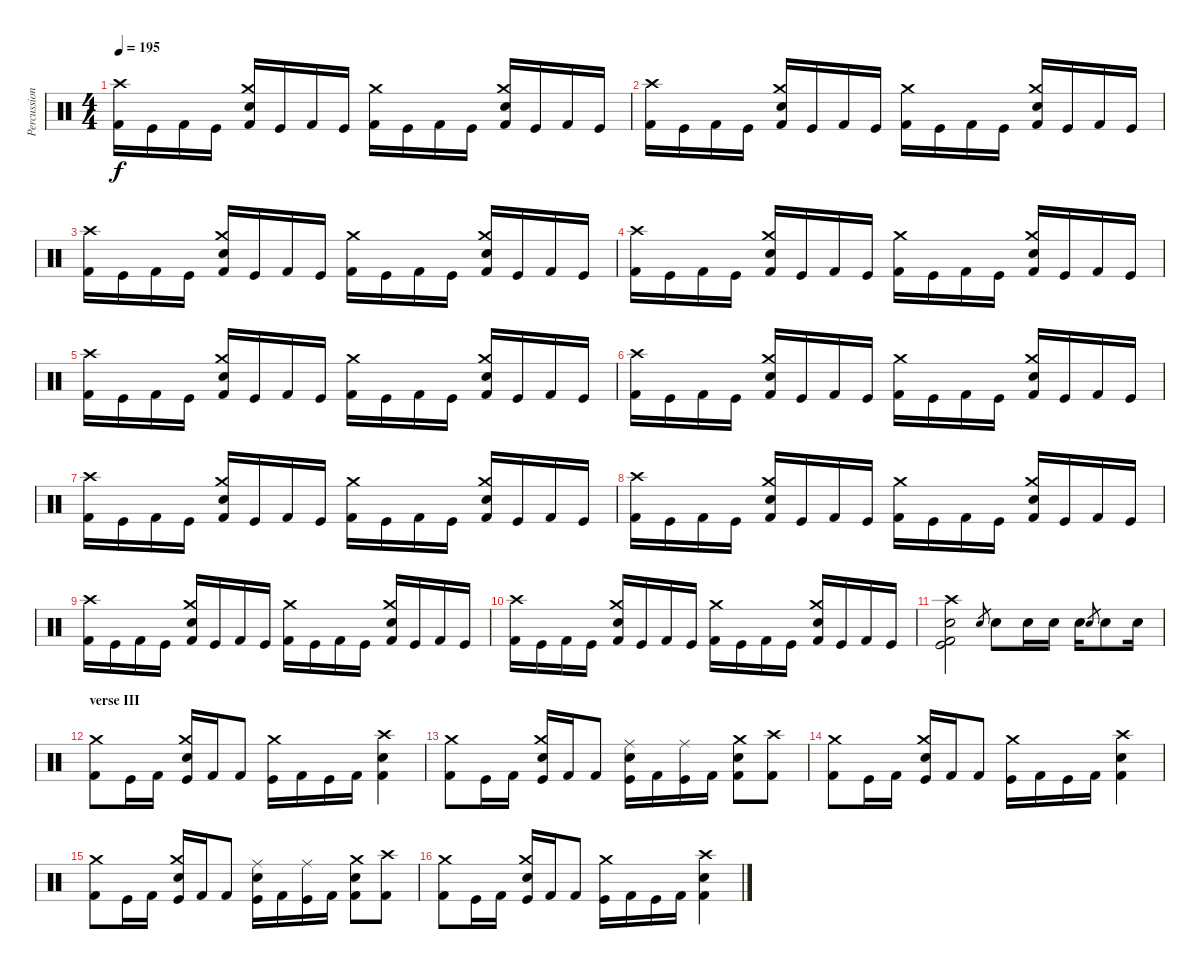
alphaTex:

\track ("Percussion" "Percussion") {instrument percussion}
\staff {score}
\articulation defaults
\ts (4 4)
\tempo 195
\clef neutral
\ks c
("Crash high (hit)" "Kick (hit) 2").16{dy f} "Kick (hit)".16 "Kick (hit) 2".16 "Kick (hit)".16 ("Crash medium (hit)" "Electric Snare (hit)" "Kick (hit) 2").16 "Kick (hit)".16 "Kick (hit) 2".16 "Kick (hit)".16 ("Crash medium (hit)" "Kick (hit) 2").16 "Kick (hit)".16 "Kick (hit) 2".16 "Kick (hit)".16 ("Crash medium (hit)" "Electric Snare (hit)" "Kick (hit) 2").16 "Kick (hit)".16 "Kick (hit) 2".16 "Kick (hit)".16 |
("Crash high (hit)" "Kick (hit) 2").16 "Kick (hit)".16 "Kick (hit) 2".16 "Kick (hit)".16 ("Crash medium (hit)" "Electric Snare (hit)" "Kick (hit) 2").16 "Kick (hit)".16 "Kick (hit) 2".16 "Kick (hit)".16 ("Crash medium (hit)" "Kick (hit) 2").16 "Kick (hit)".16 "Kick (hit) 2".16 "Kick (hit)".16 ("Crash medium (hit)" "Electric Snare (hit)" "Kick (hit) 2").16 "Kick (hit)".16 "Kick (hit) 2".16 "Kick (hit)".16 |
("Crash high (hit)" "Kick (hit) 2").16 "Kick (hit)".16 "Kick (hit) 2".16 "Kick (hit)".16 ("Crash medium (hit)" "Electric Snare (hit)" "Kick (hit) 2").16 "Kick (hit)".16 "Kick (hit) 2".16 "Kick (hit)".16 ("Crash medium (hit)" "Kick (hit) 2").16 "Kick (hit)".16 "Kick (hit) 2".16 "Kick (hit)".16 ("Crash medium (hit)" "Electric Snare (hit)" "Kick (hit) 2").16 "Kick (hit)".16 "Kick (hit) 2".16 "Kick (hit)".16 |
("Crash high (hit)" "Kick (hit) 2").16 "Kick (hit)".16 "Kick (hit) 2".16 "Kick (hit)".16 ("Crash medium (hit)" "Electric Snare (hit)" "Kick (hit) 2").16 "Kick (hit)".16 "Kick (hit) 2".16 "Kick (hit)".16 ("Crash medium (hit)" "Kick (hit) 2").16 "Kick (hit)".16 "Kick (hit) 2".16 "Kick (hit)".16 ("Crash medium (hit)" "Electric Snare (hit)" "Kick (hit) 2").16 "Kick (hit)".16 "Kick (hit) 2".16 "Kick (hit)".16 |
("Crash high (hit)" "Kick (hit) 2").16 "Kick (hit)".16 "Kick (hit) 2".16 "Kick (hit)".16 ("Crash medium (hit)" "Electric Snare (hit)" "Kick (hit) 2").16 "Kick (hit)".16 "Kick (hit) 2".16 "Kick (hit)".16 ("Crash medium (hit)" "Kick (hit) 2").16 "Kick (hit)".16 "Kick (hit) 2".16 "Kick (hit)".16 ("Crash medium (hit)" "Electric Snare (hit)" "Kick (hit) 2").16 "Kick (hit)".16 "Kick (hit) 2".16 "Kick (hit)".16 |
("Crash high (hit)" "Kick (hit) 2").16 "Kick (hit)".16 "Kick (hit) 2".16 "Kick (hit)".16 ("Crash medium (hit)" "Electric Snare (hit)" "Kick (hit) 2").16 "Kick (hit)".16 "Kick (hit) 2".16 "Kick (hit)".16 ("Crash medium (hit)" "Kick (hit) 2").16 "Kick (hit)".16 "Kick (hit) 2".16 "Kick (hit)".16 ("Crash medium (hit)" "Electric Snare (hit)" "Kick (hit) 2").16 "Kick (hit)".16 "Kick (hit) 2".16 "Kick (hit)".16 |
("Crash high (hit)" "Kick (hit) 2").16 "Kick (hit)".16 "Kick (hit) 2".16 "Kick (hit)".16 ("Crash medium (hit)" "Electric Snare (hit)" "Kick (hit) 2").16 "Kick (hit)".16 "Kick (hit) 2".16 "Kick (hit)".16 ("Crash medium (hit)" "Kick (hit) 2").16 "Kick (hit)".16 "Kick (hit) 2".16 "Kick (hit)".16 ("Crash medium (hit)" "Electric Snare (hit)" "Kick (hit) 2").16 "Kick (hit)".16 "Kick (hit) 2".16 "Kick (hit)".16 |
("Crash high (hit)" "Kick (hit) 2").16 "Kick (hit)".16 "Kick (hit) 2".16 "Kick (hit)".16 ("Crash medium (hit)" "Electric Snare (hit)" "Kick (hit) 2").16 "Kick (hit)".16 "Kick (hit) 2".16 "Kick (hit)".16 ("Crash medium (hit)" "Kick (hit) 2").16 "Kick (hit)".16 "Kick (hit) 2".16 "Kick (hit)".16 ("Crash medium (hit)" "Electric Snare (hit)" "Kick (hit) 2").16 "Kick (hit)".16 "Kick (hit) 2".16 "Kick (hit)".16 |
("Crash high (hit)" "Kick (hit) 2").16 "Kick (hit)".16 "Kick (hit) 2".16 "Kick (hit)".16 ("Crash medium (hit)" "Electric Snare (hit)" "Kick (hit) 2").16 "Kick (hit)".16 "Kick (hit) 2".16 "Kick (hit)".16 ("Crash medium (hit)" "Kick (hit) 2").16 "Kick (hit)".16 "Kick (hit) 2".16 "Kick (hit)".16 ("Crash medium (hit)" "Electric Snare (hit)" "Kick (hit) 2").16 "Kick (hit)".16 "Kick (hit) 2".16 "Kick (hit)".16 |
("Crash high (hit)" "Kick (hit) 2").16 "Kick (hit)".16 "Kick (hit) 2".16 "Kick (hit)".16 ("Crash medium (hit)" "Electric Snare (hit)" "Kick (hit) 2").16 "Kick (hit)".16 "Kick (hit) 2".16 "Kick (hit)".16 ("Crash medium (hit)" "Kick (hit) 2").16 "Kick (hit)".16 "Kick (hit) 2".16 "Kick (hit)".16 ("Crash medium (hit)" "Electric Snare (hit)" "Kick (hit) 2").16 "Kick (hit)".16 "Kick (hit) 2".16 "Kick (hit)".16 |
("Crash high (hit)" "Electric Snare (hit)" "Kick (hit)" "Kick (hit) 2").2 "Electric Snare (hit)".8{gr} "Electric Snare (hit)".8 "Electric Snare (hit)".16 "Electric Snare (hit)".16 "Electric Snare (hit)".16 "Snare (hit) 2".8{gr} "Electric Snare (hit)".8 "Electric Snare (hit)".16 |
\section ("" "verse III")
("Crash medium (hit)" "Kick (hit) 2").8 "Kick (hit)".16 "Kick (hit) 2".16 ("Crash medium (hit)" "Electric Snare (hit)" "Kick (hit)").16 "Kick (hit) 2".16 "Kick (hit) 2".8 ("Crash medium (hit)" "Kick (hit)").16 "Kick (hit) 2".16 "Kick (hit)".16 "Kick (hit) 2".16 ("Crash high (hit)" "Electric Snare (hit)" "Kick (hit) 2").4 |
("Crash medium (hit)" "Kick (hit) 2").8 "Kick (hit)".16 "Kick (hit) 2".16 ("Crash medium (hit)" "Electric Snare (hit)" "Kick (hit)").16 "Kick (hit) 2".16 "Kick (hit) 2".8 ("Ride (middle)" "Electric Snare (hit)" "Kick (hit)").16 "Kick (hit) 2".16 ("Ride (middle)" "Kick (hit)").16 "Kick (hit) 2".16 ("Crash medium (hit)" "Electric Snare (hit)" "Kick (hit) 2").8 ("Crash high (hit)" "Kick (hit) 2").8 |
("Crash medium (hit)" "Kick (hit) 2").8 "Kick (hit)".16 "Kick (hit) 2".16 ("Crash medium (hit)" "Electric Snare (hit)" "Kick (hit)").16 "Kick (hit) 2".16 "Kick (hit) 2".8 ("Crash medium (hit)" "Kick (hit)").16 "Kick (hit) 2".16 "Kick (hit)".16 "Kick (hit) 2".16 ("Crash high (hit)" "Electric Snare (hit)" "Kick (hit) 2").4 |
("Crash medium (hit)" "Kick (hit) 2").8 "Kick (hit)".16 "Kick (hit) 2".16 ("Crash medium (hit)" "Electric Snare (hit)" "Kick (hit)").16 "Kick (hit) 2".16 "Kick (hit) 2".8 ("Ride (middle)" "Electric Snare (hit)" "Kick (hit)").16 "Kick (hit) 2".16 ("Ride (middle)" "Kick (hit)").16 "Kick (hit) 2".16 ("Crash medium (hit)" "Electric Snare (hit)" "Kick (hit) 2").8 ("Crash high (hit)" "Kick (hit) 2").8 |
("Crash medium (hit)" "Kick (hit) 2").8 "Kick (hit)".16 "Kick (hit) 2".16 ("Crash medium (hit)" "Electric Snare (hit)" "Kick (hit)").16 "Kick (hit) 2".16 "Kick (hit) 2".8 ("Crash medium (hit)" "Kick (hit)").16 "Kick (hit) 2".16 "Kick (hit)".16 "Kick (hit) 2".16 ("Crash high (hit)" "Electric Snare (hit)" "Kick (hit) 2").4
